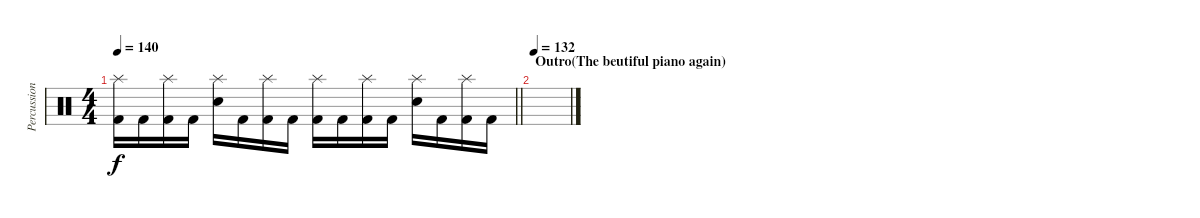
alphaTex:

\track ("Percussion" "Percussion") {instrument percussion}
\staff {score}
\articulation defaults
\ts (4 4)
\tempo 140
\clef neutral
\barLineRight lightlight
\ks c
("Splash (hit)" "Kick (hit) 2").16{dy f} "Kick (hit) 2".16 ("Splash (hit)" "Kick (hit) 2").16 "Kick (hit) 2".16 ("Splash (hit)" "Electric Snare (hit)").16 "Kick (hit) 2".16 ("Splash (hit)" "Kick (hit) 2").16 "Kick (hit) 2".16 ("Splash (hit)" "Kick (hit) 2").16 "Kick (hit) 2".16 ("Splash (hit)" "Kick (hit) 2").16 "Kick (hit) 2".16 ("Splash (hit)" "Electric Snare (hit)").16 "Kick (hit) 2".16 ("Splash (hit)" "Kick (hit) 2").16 "Kick (hit) 2".16 |
\section ("" "Outro(The beutiful piano again)")
\tempo 132
